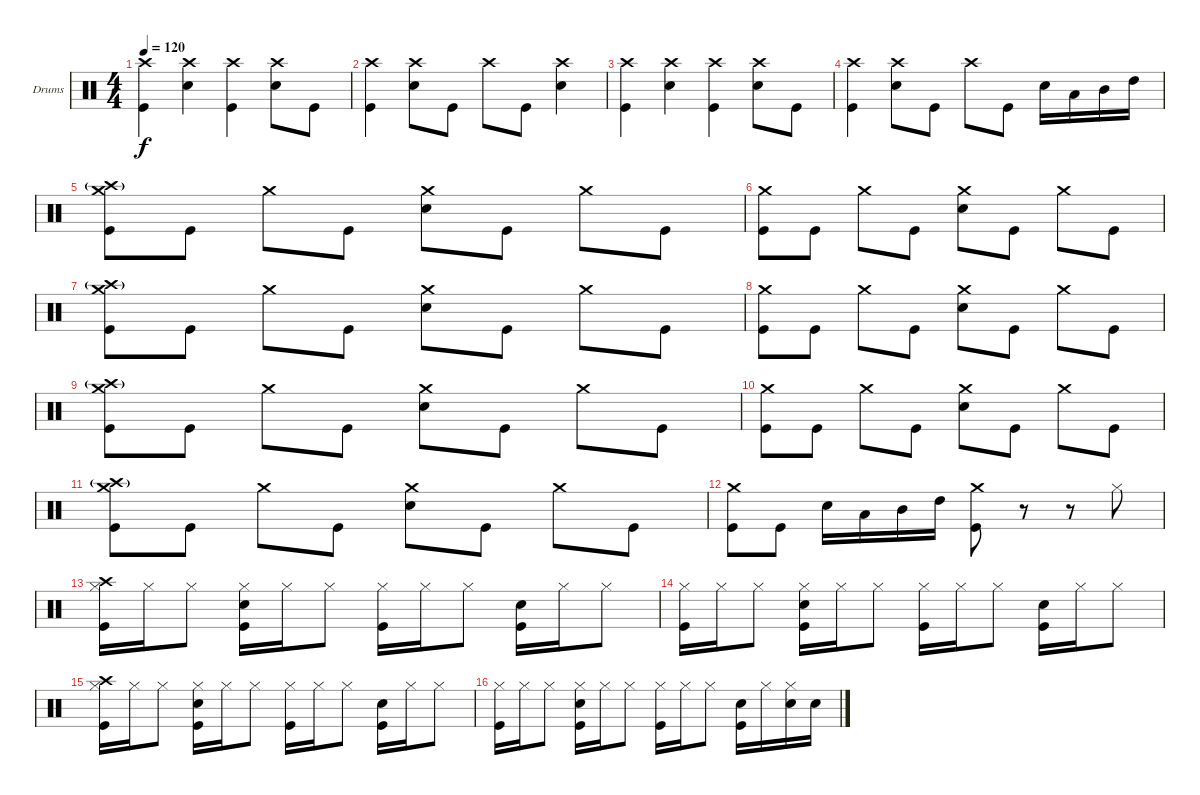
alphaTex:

\defaultSystemsLayout 4
\bracketExtendMode groupsimilarinstruments
\firstSystemTrackNameOrientation horizontal
\otherSystemsTrackNameOrientation horizontal
\track ("Drumkit" "Drums") {instrument percussion}
\staff {score}
\articulation defaults
\ts (4 4)
\tempo 120
\clef neutral
\ks c
("Crash high (hit)" "Kick (hit)").4{dy f} ("Crash high (hit)" "Snare (hit) 2").4 ("Crash high (hit)" "Kick (hit)").4 ("Crash high (hit)" "Snare (hit) 2").8 "Kick (hit)".8 |
("Crash high (hit)" "Kick (hit)").4 ("Crash high (hit)" "Snare (hit) 2").8 "Kick (hit)".8 "Crash high (hit)".8 "Kick (hit)".8 ("Crash high (hit)" "Snare (hit) 2").4 |
("Crash high (hit)" "Kick (hit)").4 ("Crash high (hit)" "Snare (hit) 2").4 ("Crash high (hit)" "Kick (hit)").4 ("Crash high (hit)" "Snare (hit) 2").8 "Kick (hit)".8 |
("Crash high (hit)" "Kick (hit)").4 ("Crash high (hit)" "Snare (hit) 2").8 "Kick (hit)".8 "Crash high (hit)".8 "Kick (hit)".8 "Snare (hit) 2".16 "Low Tom (hit)".16 "Mid Tom (hit)".16 "High Tom (hit)".16 |
("Crash medium (hit)" "Crash high (hit)"{g} "Kick (hit)").8 "Kick (hit)".8 "Crash medium (hit)".8 "Kick (hit)".8 ("Crash medium (hit)" "Snare (hit) 2").8 "Kick (hit)".8 "Crash medium (hit)".8 "Kick (hit)".8 |
("Crash medium (hit)" "Kick (hit)").8 "Kick (hit)".8 "Crash medium (hit)".8 "Kick (hit)".8 ("Crash medium (hit)" "Snare (hit) 2").8 "Kick (hit)".8 "Crash medium (hit)".8 "Kick (hit)".8 |
("Crash medium (hit)" "Crash high (hit)"{g} "Kick (hit)").8 "Kick (hit)".8 "Crash medium (hit)".8 "Kick (hit)".8 ("Crash medium (hit)" "Snare (hit) 2").8 "Kick (hit)".8 "Crash medium (hit)".8 "Kick (hit)".8 |
("Crash medium (hit)" "Kick (hit)").8 "Kick (hit)".8 "Crash medium (hit)".8 "Kick (hit)".8 ("Crash medium (hit)" "Snare (hit) 2").8 "Kick (hit)".8 "Crash medium (hit)".8 "Kick (hit)".8 |
("Crash medium (hit)" "Crash high (hit)"{g} "Kick (hit)").8 "Kick (hit)".8 "Crash medium (hit)".8 "Kick (hit)".8 ("Crash medium (hit)" "Snare (hit) 2").8 "Kick (hit)".8 "Crash medium (hit)".8 "Kick (hit)".8 |
("Crash medium (hit)" "Kick (hit)").8 "Kick (hit)".8 "Crash medium (hit)".8 "Kick (hit)".8 ("Crash medium (hit)" "Snare (hit) 2").8 "Kick (hit)".8 "Crash medium (hit)".8 "Kick (hit)".8 |
("Crash medium (hit)" "Crash high (hit)"{g} "Kick (hit)").8 "Kick (hit)".8 "Crash medium (hit)".8 "Kick (hit)".8 ("Crash medium (hit)" "Snare (hit) 2").8 "Kick (hit)".8 "Crash medium (hit)".8 "Kick (hit)".8 |
("Crash medium (hit)" "Kick (hit)").8 "Kick (hit)".8 "Snare (hit) 2".16 "Low Tom (hit)".16 "Mid Tom (hit)".16 "High Tom (hit)".16 ("Crash medium (hit)" "Kick (hit)").8 r.8 r.8 "Hi-Hat (closed)".8 |
("Hi-Hat (closed)" "Crash high (hit)" "Kick (hit)").16 "Hi-Hat (closed)".16 "Hi-Hat (closed)".8 ("Hi-Hat (closed)" "Snare (hit) 2" "Kick (hit)").16 "Hi-Hat (closed)".16 "Hi-Hat (closed)".8 ("Hi-Hat (closed)" "Kick (hit)").16 "Hi-Hat (closed)".16 "Hi-Hat (closed)".8 ("Snare (hit) 2" "Kick (hit)").16 "Hi-Hat (closed)".16 "Hi-Hat (closed)".8 |
("Hi-Hat (closed)" "Kick (hit)").16 "Hi-Hat (closed)".16 "Hi-Hat (closed)".8 ("Hi-Hat (closed)" "Snare (hit) 2" "Kick (hit)").16 "Hi-Hat (closed)".16 "Hi-Hat (closed)".8 ("Hi-Hat (closed)" "Kick (hit)").16 "Hi-Hat (closed)".16 "Hi-Hat (closed)".8 ("Snare (hit) 2" "Kick (hit)").16 "Hi-Hat (closed)".16 "Hi-Hat (closed)".8 |
("Hi-Hat (closed)" "Crash high (hit)" "Kick (hit)").16 "Hi-Hat (closed)".16 "Hi-Hat (closed)".8 ("Hi-Hat (closed)" "Snare (hit) 2" "Kick (hit)").16 "Hi-Hat (closed)".16 "Hi-Hat (closed)".8 ("Hi-Hat (closed)" "Kick (hit)").16 "Hi-Hat (closed)".16 "Hi-Hat (closed)".8 ("Snare (hit) 2" "Kick (hit)").16 "Hi-Hat (closed)".16 "Hi-Hat (closed)".8 |
("Hi-Hat (closed)" "Kick (hit)").16 "Hi-Hat (closed)".16 "Hi-Hat (closed)".8 ("Hi-Hat (closed)" "Snare (hit) 2" "Kick (hit)").16 "Hi-Hat (closed)".16 "Hi-Hat (closed)".8 ("Hi-Hat (closed)" "Kick (hit)").16 "Hi-Hat (closed)".16 "Hi-Hat (closed)".8 ("Snare (hit) 2" "Kick (hit)").16 "Hi-Hat (closed)".16 ("Hi-Hat (closed)" "Snare (hit) 2").16 "Snare (hit) 2".16
